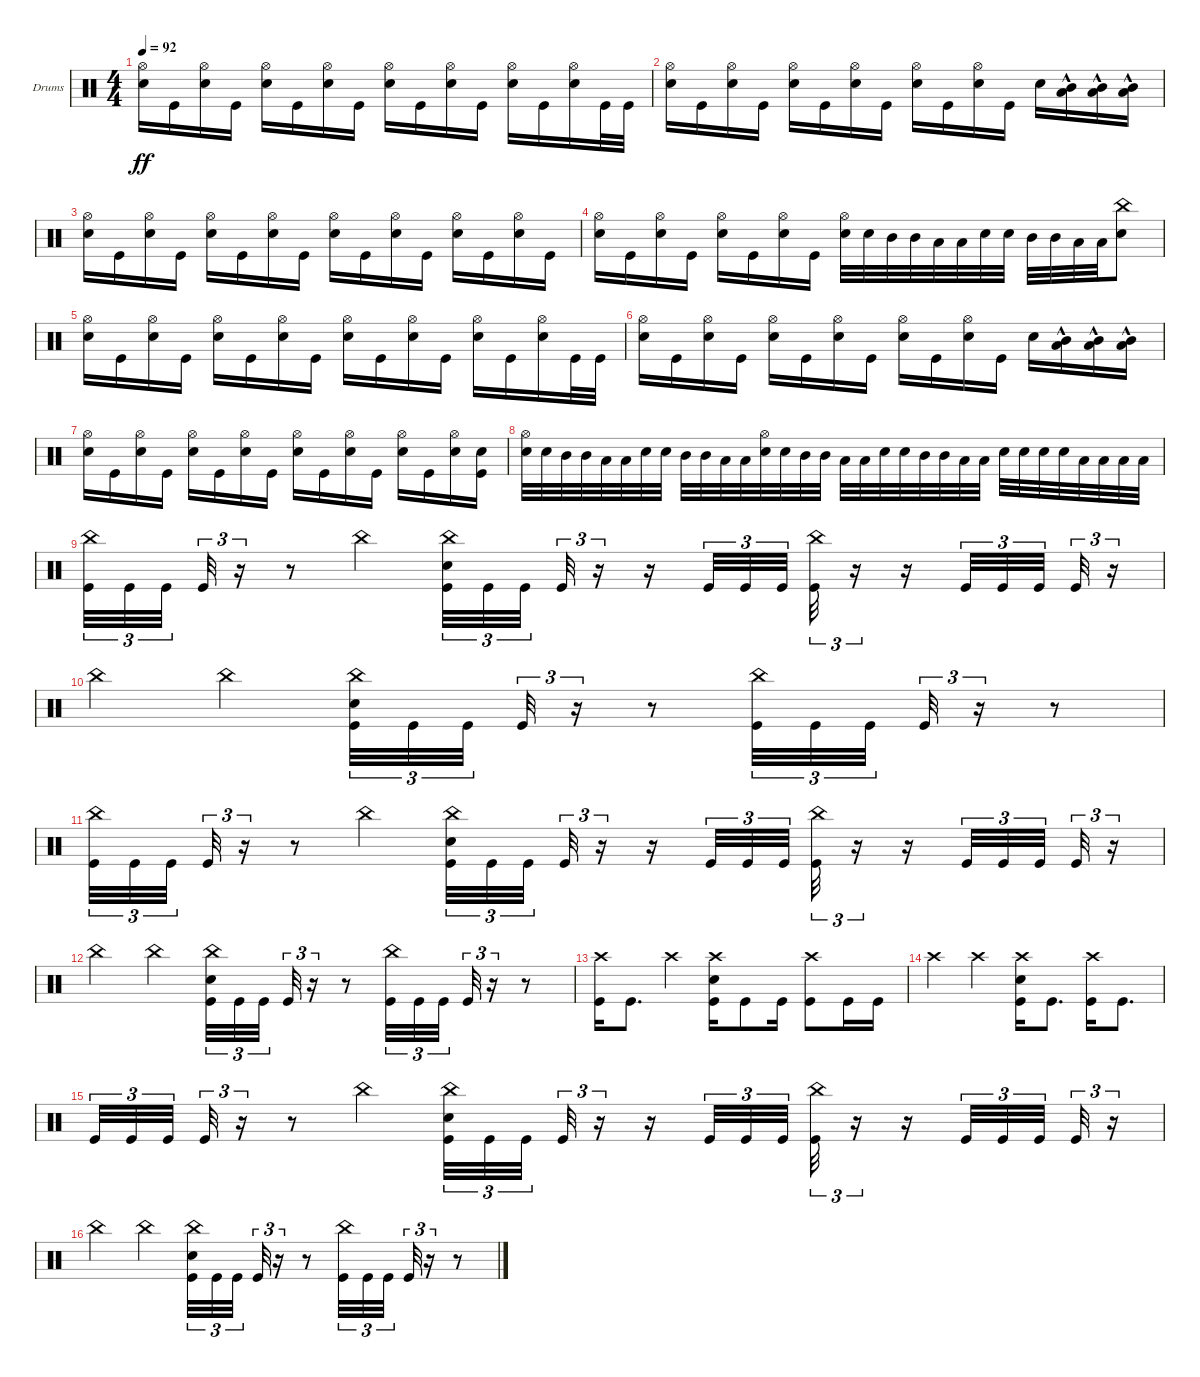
\defaultSystemsLayout 4
\bracketExtendMode groupsimilarinstruments
\firstSystemTrackNameOrientation horizontal
\otherSystemsTrackNameOrientation horizontal
\track ("Drumkit" "Drums") {instrument percussion}
\staff {score}
\articulation defaults
\ts (4 4)
\tempo 92
\clef neutral
\scale
0.472222
\ks c
("Snare (hit) 2" "Hi-Hat (open)").16{dy ff} "Kick (hit)".16 ("Snare (hit) 2" "Hi-Hat (open)").16 "Kick (hit)".16 ("Snare (hit) 2" "Hi-Hat (open)").16 "Kick (hit)".16 ("Snare (hit) 2" "Hi-Hat (open)").16 "Kick (hit)".16 ("Snare (hit) 2" "Hi-Hat (open)").16 "Kick (hit)".16 ("Snare (hit) 2" "Hi-Hat (open)").16 "Kick (hit)".16 ("Snare (hit) 2" "Hi-Hat (open)").16 "Kick (hit)".16 ("Snare (hit) 2" "Hi-Hat (open)").16 "Kick (hit)".32 "Kick (hit)".32 |
\scale
0.263889 ("Snare (hit) 2" "Hi-Hat (open)").16 "Kick (hit)".16 ("Snare (hit) 2" "Hi-Hat (open)").16 "Kick (hit)".16 ("Snare (hit) 2" "Hi-Hat (open)").16 "Kick (hit)".16 ("Snare (hit) 2" "Hi-Hat (open)").16 "Kick (hit)".16 ("Snare (hit) 2" "Hi-Hat (open)").16 "Kick (hit)".16 ("Snare (hit) 2" "Hi-Hat (open)").16 "Kick (hit)".16 "Snare (hit) 2".16 ("Mid Tom (hit)"{hac} "Low Tom (hit)"{hac}).16 ("Mid Tom (hit)"{hac} "Low Tom (hit)"{hac}).16 ("Low Tom (hit)"{hac} "Mid Tom (hit)"{hac}).16 |
\scale
0.263889 ("Snare (hit) 2" "Hi-Hat (open)").16 "Kick (hit)".16 ("Snare (hit) 2" "Hi-Hat (open)").16 "Kick (hit)".16 ("Snare (hit) 2" "Hi-Hat (open)").16 "Kick (hit)".16 ("Snare (hit) 2" "Hi-Hat (open)").16 "Kick (hit)".16 ("Snare (hit) 2" "Hi-Hat (open)").16 "Kick (hit)".16 ("Snare (hit) 2" "Hi-Hat (open)").16 "Kick (hit)".16 ("Snare (hit) 2" "Hi-Hat (open)").16 "Kick (hit)".16 ("Snare (hit) 2" "Hi-Hat (open)").16 "Kick (hit)".16 |
\scale
0.333333 ("Snare (hit) 2" "Hi-Hat (open)").16 "Kick (hit)".16 ("Snare (hit) 2" "Hi-Hat (open)").16 "Kick (hit)".16 ("Snare (hit) 2" "Hi-Hat (open)").16 "Kick (hit)".16 ("Snare (hit) 2" "Hi-Hat (open)").16 "Kick (hit)".16 ("Snare (hit) 2" "Hi-Hat (open)").32 "Snare (hit) 2".32 "Mid Tom (hit)".32 "Mid Tom (hit)".32 "Low Tom (hit)".32 "Low Tom (hit)".32 "Snare (hit) 2".32 "Snare (hit) 2".32 "Mid Tom (hit)".32 "Mid Tom (hit)".32 "Low Tom (hit)".32 "Low Tom (hit)".32 ("Snare (hit) 2" "China (hit)").8 |
\scale
0.333333 ("Snare (hit) 2" "Hi-Hat (open)").16 "Kick (hit)".16 ("Snare (hit) 2" "Hi-Hat (open)").16 "Kick (hit)".16 ("Snare (hit) 2" "Hi-Hat (open)").16 "Kick (hit)".16 ("Snare (hit) 2" "Hi-Hat (open)").16 "Kick (hit)".16 ("Snare (hit) 2" "Hi-Hat (open)").16 "Kick (hit)".16 ("Snare (hit) 2" "Hi-Hat (open)").16 "Kick (hit)".16 ("Snare (hit) 2" "Hi-Hat (open)").16 "Kick (hit)".16 ("Snare (hit) 2" "Hi-Hat (open)").16 "Kick (hit)".32 "Kick (hit)".32 |
\scale
0.333333 ("Snare (hit) 2" "Hi-Hat (open)").16 "Kick (hit)".16 ("Snare (hit) 2" "Hi-Hat (open)").16 "Kick (hit)".16 ("Snare (hit) 2" "Hi-Hat (open)").16 "Kick (hit)".16 ("Snare (hit) 2" "Hi-Hat (open)").16 "Kick (hit)".16 ("Snare (hit) 2" "Hi-Hat (open)").16 "Kick (hit)".16 ("Snare (hit) 2" "Hi-Hat (open)").16 "Kick (hit)".16 "Snare (hit) 2".16 ("Mid Tom (hit)"{hac} "Low Tom (hit)"{hac}).16 ("Mid Tom (hit)"{hac} "Low Tom (hit)"{hac}).16 ("Low Tom (hit)"{hac} "Mid Tom (hit)"{hac}).16 |
("Snare (hit) 2" "Hi-Hat (open)").16 "Kick (hit)".16 ("Snare (hit) 2" "Hi-Hat (open)").16 "Kick (hit)".16 ("Snare (hit) 2" "Hi-Hat (open)").16 "Kick (hit)".16 ("Snare (hit) 2" "Hi-Hat (open)").16 "Kick (hit)".16 ("Snare (hit) 2" "Hi-Hat (open)").16 "Kick (hit)".16 ("Snare (hit) 2" "Hi-Hat (open)").16 "Kick (hit)".16 ("Snare (hit) 2" "Hi-Hat (open)").16 "Kick (hit)".16 ("Snare (hit) 2" "Hi-Hat (open)").16 ("Kick (hit)" "Snare (hit) 2").16 |
("Snare (hit) 2" "Hi-Hat (open)").32 "Snare (hit) 2".32 "Mid Tom (hit)".32 "Mid Tom (hit)".32 "Low Tom (hit)".32 "Low Tom (hit)".32 "Snare (hit) 2".32 "Snare (hit) 2".32 "Mid Tom (hit)".32 "Mid Tom (hit)".32 "Low Tom (hit)".32 "Low Tom (hit)".32 ("Snare (hit) 2" "Hi-Hat (open)").32 "Snare (hit) 2".32 "Mid Tom (hit)".32 "Mid Tom (hit)".32 "Low Tom (hit)".32 "Low Tom (hit)".32 "Snare (hit) 2".32 "Snare (hit) 2".32 "Mid Tom (hit)".32 "Mid Tom (hit)".32 "Low Tom (hit)".32 "Low Tom (hit)".32 "Snare (hit) 2".32 "Snare (hit) 2".32 "Snare (hit) 2".32 "Snare (hit) 2".32 "Low Tom (hit)".32 "Low Tom (hit)".32 "Low Tom (hit)".32 "Low Tom (hit)".32 |
("Kick (hit)" "China (hit)").32{tu (3 2)} "Kick (hit)".32{tu (3 2)} "Kick (hit)".32{tu (3 2)} "Kick (hit)".32{tu (3 2)} r.16{tu (3 2)} r.8 "China (hit)".4 ("Kick (hit)" "China (hit)" "Snare (hit) 2").32{tu (3 2)} "Kick (hit)".32{tu (3 2)} "Kick (hit)".32{tu (3 2)} "Kick (hit)".32{tu (3 2)} r.16{tu (3 2)} r.16 "Kick (hit)".32{tu (3 2)} "Kick (hit)".32{tu (3 2)} "Kick (hit)".32{tu (3 2)} ("China (hit)" "Kick (hit)").32{tu (3 2)} r.16{tu (3 2)} r.16 "Kick (hit)".32{tu (3 2)} "Kick (hit)".32{tu (3 2)} "Kick (hit)".32{tu (3 2)} "Kick (hit)".32{tu (3 2)} r.16{tu (3 2)} |
"China (hit)".4 "China (hit)".4 ("China (hit)" "Snare (hit) 2" "Kick (hit)").32{tu (3 2)} "Kick (hit)".32{tu (3 2)} "Kick (hit)".32{tu (3 2)} "Kick (hit)".32{tu (3 2)} r.16{tu (3 2)} r.8 ("China (hit)" "Kick (hit)").32{tu (3 2)} "Kick (hit)".32{tu (3 2)} "Kick (hit)".32{tu (3 2)} "Kick (hit)".32{tu (3 2)} r.16{tu (3 2)} r.8 |
("Kick (hit)" "China (hit)").32{tu (3 2)} "Kick (hit)".32{tu (3 2)} "Kick (hit)".32{tu (3 2)} "Kick (hit)".32{tu (3 2)} r.16{tu (3 2)} r.8 "China (hit)".4 ("Kick (hit)" "China (hit)" "Snare (hit) 2").32{tu (3 2)} "Kick (hit)".32{tu (3 2)} "Kick (hit)".32{tu (3 2)} "Kick (hit)".32{tu (3 2)} r.16{tu (3 2)} r.16 "Kick (hit)".32{tu (3 2)} "Kick (hit)".32{tu (3 2)} "Kick (hit)".32{tu (3 2)} ("China (hit)" "Kick (hit)").32{tu (3 2)} r.16{tu (3 2)} r.16 "Kick (hit)".32{tu (3 2)} "Kick (hit)".32{tu (3 2)} "Kick (hit)".32{tu (3 2)} "Kick (hit)".32{tu (3 2)} r.16{tu (3 2)} |
"China (hit)".4 "China (hit)".4 ("China (hit)" "Snare (hit) 2" "Kick (hit)").32{tu (3 2)} "Kick (hit)".32{tu (3 2)} "Kick (hit)".32{tu (3 2)} "Kick (hit)".32{tu (3 2)} r.16{tu (3 2)} r.8 ("China (hit)" "Kick (hit)").32{tu (3 2)} "Kick (hit)".32{tu (3 2)} "Kick (hit)".32{tu (3 2)} "Kick (hit)".32{tu (3 2)} r.16{tu (3 2)} r.8 |
("Kick (hit)" "Crash high (hit)").16 "Kick (hit)".8{d} "Crash high (hit)".4 ("Kick (hit)" "Snare (hit) 2" "Crash high (hit)").16 "Kick (hit)".8 "Kick (hit)".16 ("Kick (hit)" "Crash high (hit)").8 "Kick (hit)".16 "Kick (hit)".16 |
"Crash high (hit)".4 "Crash high (hit)".4 ("Kick (hit)" "Snare (hit) 2" "Crash high (hit)").16 "Kick (hit)".8{d} ("Kick (hit)" "Crash high (hit)").16 "Kick (hit)".8{d} |
"Kick (hit)".32{tu (3 2)} "Kick (hit)".32{tu (3 2)} "Kick (hit)".32{tu (3 2)} "Kick (hit)".32{tu (3 2)} r.16{tu (3 2)} r.8 "China (hit)".4 ("Kick (hit)" "China (hit)" "Snare (hit) 2").32{tu (3 2)} "Kick (hit)".32{tu (3 2)} "Kick (hit)".32{tu (3 2)} "Kick (hit)".32{tu (3 2)} r.16{tu (3 2)} r.16 "Kick (hit)".32{tu (3 2)} "Kick (hit)".32{tu (3 2)} "Kick (hit)".32{tu (3 2)} ("China (hit)" "Kick (hit)").32{tu (3 2)} r.16{tu (3 2)} r.16 "Kick (hit)".32{tu (3 2)} "Kick (hit)".32{tu (3 2)} "Kick (hit)".32{tu (3 2)} "Kick (hit)".32{tu (3 2)} r.16{tu (3 2)} |
"China (hit)".4 "China (hit)".4 ("China (hit)" "Snare (hit) 2" "Kick (hit)").32{tu (3 2)} "Kick (hit)".32{tu (3 2)} "Kick (hit)".32{tu (3 2)} "Kick (hit)".32{tu (3 2)} r.16{tu (3 2)} r.8 ("China (hit)" "Kick (hit)").32{tu (3 2)} "Kick (hit)".32{tu (3 2)} "Kick (hit)".32{tu (3 2)} "Kick (hit)".32{tu (3 2)} r.16{tu (3 2)} r.8
